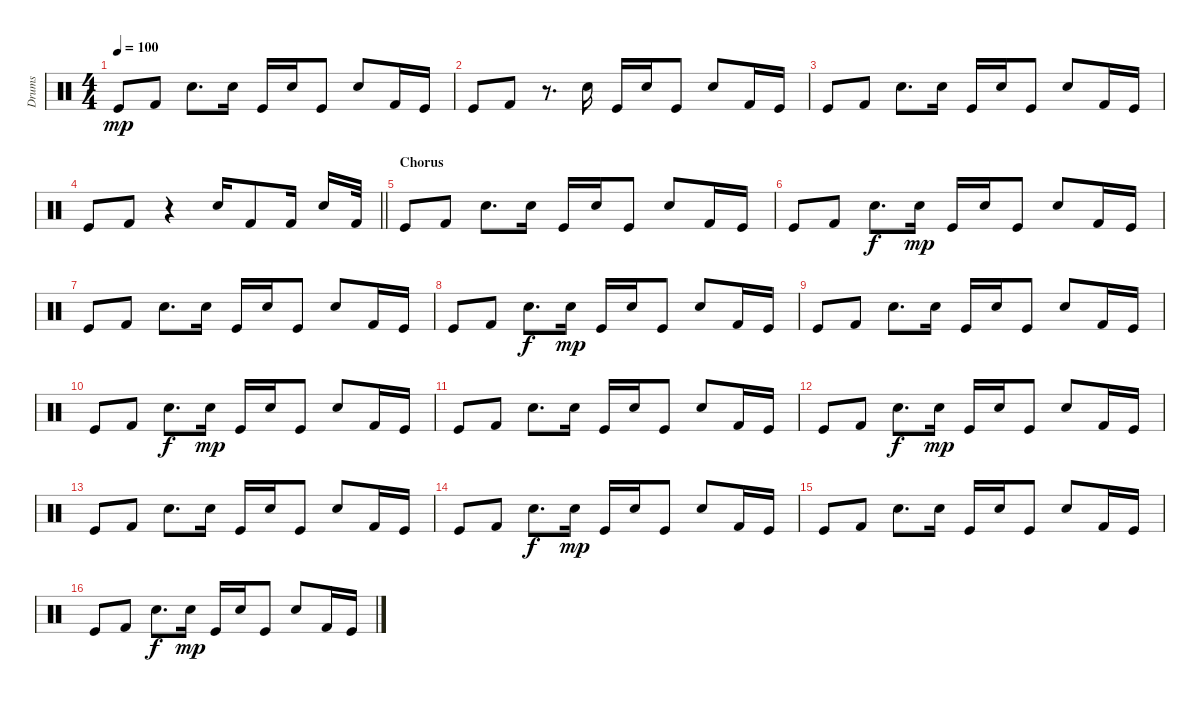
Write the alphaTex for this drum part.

\track ("Drums" "Drums") {instrument percussion}
\staff {score}
\articulation defaults
\ts (4 4)
\tempo 100
\clef neutral
\ks c "Kick (hit)".8{dy mp} "Kick (hit) 2".8 "Electric Snare (hit)".8{d} "Electric Snare (hit)".16 "Kick (hit)".16 "Electric Snare (hit)".16 "Kick (hit)".8 "Electric Snare (hit)".8 "Kick (hit) 2".16 "Kick (hit)".16
|
"Kick (hit)".8 "Kick (hit) 2".8 r.8{d} "Electric Snare (hit)".16 "Kick (hit)".16 "Electric Snare (hit)".16 "Kick (hit)".8 "Electric Snare (hit)".8 "Kick (hit) 2".16 "Kick (hit)".16 |
"Kick (hit)".8 "Kick (hit) 2".8 "Electric Snare (hit)".8{d} "Electric Snare (hit)".16 "Kick (hit)".16 "Electric Snare (hit)".16 "Kick (hit)".8 "Electric Snare (hit)".8 "Kick (hit) 2".16 "Kick (hit)".16 |
\barLineRight lightlight "Kick (hit)".8 "Kick (hit) 2".8
r.4 "Snare (hit) 2".16 "Kick (hit) 2".8 "Kick (hit) 2".16 "Snare (hit) 2".16 "Kick (hit) 2".32 |
\section ("" "Chorus")
"Kick (hit)".8 "Kick (hit) 2".8 "Electric Snare (hit)".8{d} "Electric Snare (hit)".16 "Kick (hit)".16 "Electric Snare (hit)".16 "Kick (hit)".8 "Electric Snare (hit)".8 "Kick (hit) 2".16 "Kick (hit)".16 |
"Kick (hit)".8 "Kick (hit) 2".8 "Electric Snare (hit)".8{d dy f} "Electric Snare (hit)".16{dy mp} "Kick (hit)".16 "Electric Snare (hit)".16 "Kick (hit)".8 "Electric Snare (hit)".8 "Kick (hit) 2".16 "Kick (hit)".16 |
"Kick (hit)".8 "Kick (hit) 2".8 "Electric Snare (hit)".8{d} "Electric Snare (hit)".16 "Kick (hit)".16 "Electric Snare (hit)".16 "Kick (hit)".8 "Electric Snare (hit)".8 "Kick (hit) 2".16 "Kick (hit)".16 |
"Kick (hit)".8 "Kick (hit) 2".8 "Electric Snare (hit)".8{d dy f} "Electric Snare (hit)".16{dy mp} "Kick (hit)".16 "Electric Snare (hit)".16 "Kick (hit)".8 "Electric Snare (hit)".8 "Kick (hit) 2".16 "Kick (hit)".16 |
"Kick (hit)".8 "Kick (hit) 2".8 "Electric Snare (hit)".8{d} "Electric Snare (hit)".16 "Kick (hit)".16 "Electric Snare (hit)".16 "Kick (hit)".8 "Electric Snare (hit)".8 "Kick (hit) 2".16 "Kick (hit)".16 |
"Kick (hit)".8 "Kick (hit) 2".8 "Electric Snare (hit)".8{d dy f} "Electric Snare (hit)".16{dy mp} "Kick (hit)".16 "Electric Snare (hit)".16 "Kick (hit)".8 "Electric Snare (hit)".8 "Kick (hit) 2".16 "Kick (hit)".16 |
"Kick (hit)".8 "Kick (hit) 2".8 "Electric Snare (hit)".8{d} "Electric Snare (hit)".16 "Kick (hit)".16 "Electric Snare (hit)".16 "Kick (hit)".8 "Electric Snare (hit)".8 "Kick (hit) 2".16 "Kick (hit)".16 |
"Kick (hit)".8 "Kick (hit) 2".8 "Electric Snare (hit)".8{d dy f} "Electric Snare (hit)".16{dy mp} "Kick (hit)".16 "Electric Snare (hit)".16 "Kick (hit)".8 "Electric Snare (hit)".8 "Kick (hit) 2".16 "Kick (hit)".16 |
"Kick (hit)".8 "Kick (hit) 2".8 "Electric Snare (hit)".8{d} "Electric Snare (hit)".16 "Kick (hit)".16 "Electric Snare (hit)".16 "Kick (hit)".8 "Electric Snare (hit)".8 "Kick (hit) 2".16 "Kick (hit)".16 |
"Kick (hit)".8 "Kick (hit) 2".8 "Electric Snare (hit)".8{d dy f} "Electric Snare (hit)".16{dy mp} "Kick (hit)".16 "Electric Snare (hit)".16 "Kick (hit)".8 "Electric Snare (hit)".8 "Kick (hit) 2".16 "Kick (hit)".16 |
"Kick (hit)".8 "Kick (hit) 2".8 "Electric Snare (hit)".8{d} "Electric Snare (hit)".16 "Kick (hit)".16 "Electric Snare (hit)".16 "Kick (hit)".8 "Electric Snare (hit)".8 "Kick (hit) 2".16 "Kick (hit)".16 |
"Kick (hit)".8 "Kick (hit) 2".8 "Electric Snare (hit)".8{d dy f} "Electric Snare (hit)".16{dy mp} "Kick (hit)".16 "Electric Snare (hit)".16 "Kick (hit)".8 "Electric Snare (hit)".8 "Kick (hit) 2".16 "Kick (hit)".16
